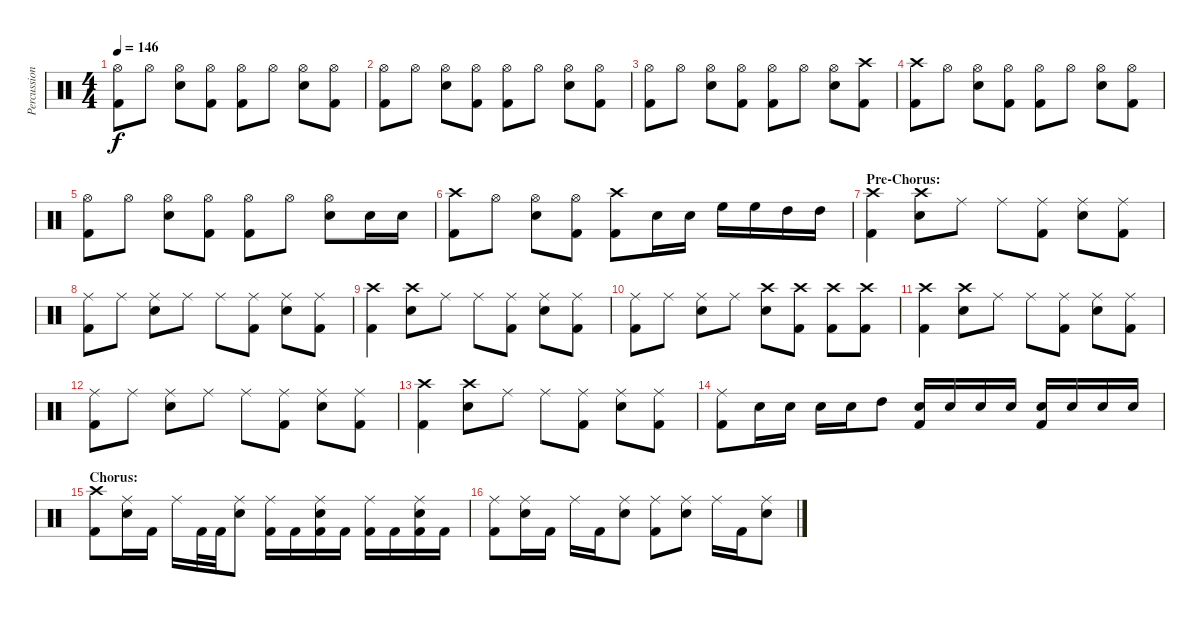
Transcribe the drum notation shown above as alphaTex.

\track ("Percussion" "Percussion") {instrument percussion}
\staff {score}
\articulation defaults
\ts (4 4)
\tempo 146
\clef neutral
\ks c
("Hi-Hat (open)" "Kick (hit) 2").8{dy f} "Hi-Hat (open)".8 ("Hi-Hat (open)" "Snare (hit) 2").8 ("Hi-Hat (open)" "Kick (hit) 2").8 ("Hi-Hat (open)" "Kick (hit) 2").8 "Hi-Hat (open)".8 ("Hi-Hat (open)" "Snare (hit) 2").8 ("Hi-Hat (open)" "Kick (hit) 2").8 |
("Hi-Hat (open)" "Kick (hit) 2").8 "Hi-Hat (open)".8 ("Hi-Hat (open)" "Snare (hit) 2").8 ("Hi-Hat (open)" "Kick (hit) 2").8 ("Hi-Hat (open)" "Kick (hit) 2").8 "Hi-Hat (open)".8 ("Hi-Hat (open)" "Snare (hit) 2").8 ("Hi-Hat (open)" "Kick (hit) 2").8 |
("Hi-Hat (open)" "Kick (hit) 2").8 "Hi-Hat (open)".8 ("Hi-Hat (open)" "Snare (hit) 2").8 ("Hi-Hat (open)" "Kick (hit) 2").8 ("Hi-Hat (open)" "Kick (hit) 2").8 "Hi-Hat (open)".8 ("Hi-Hat (open)" "Snare (hit) 2").8 ("Crash high (hit)" "Kick (hit) 2").8 |
("Crash high (hit)" "Kick (hit) 2").8 "Hi-Hat (open)".8 ("Hi-Hat (open)" "Snare (hit) 2").8 ("Hi-Hat (open)" "Kick (hit) 2").8 ("Hi-Hat (open)" "Kick (hit) 2").8 "Hi-Hat (open)".8 ("Hi-Hat (open)" "Snare (hit) 2").8 ("Hi-Hat (open)" "Kick (hit) 2").8 |
("Hi-Hat (open)" "Kick (hit) 2").8 "Hi-Hat (open)".8 ("Hi-Hat (open)" "Snare (hit) 2").8 ("Hi-Hat (open)" "Kick (hit) 2").8 ("Hi-Hat (open)" "Kick (hit) 2").8 "Hi-Hat (open)".8 ("Hi-Hat (open)" "Snare (hit) 2").8 "Snare (hit) 2".16 "Snare (hit) 2".16 |
("Crash high (hit)" "Kick (hit) 2").8 "Hi-Hat (open)".8 ("Hi-Hat (open)" "Snare (hit) 2").8 ("Hi-Hat (open)" "Kick (hit) 2").8 ("Crash high (hit)" "Kick (hit) 2").8 "Snare (hit) 2".16 "Snare (hit) 2".16 "High Floor Tom (hit)".16 "High Floor Tom (hit)".16 "High Tom (hit)".16 "High Tom (hit)".16 |
\section ("" "Pre-Chorus:")
("Crash high (hit)" "Kick (hit) 2").4 ("Crash high (hit)" "Snare (hit) 2").8 "Ride (middle)".8 "Ride (middle)".8 ("Ride (middle)" "Kick (hit) 2").8 ("Ride (middle)" "Snare (hit) 2").8 ("Ride (middle)" "Kick (hit) 2").8 |
("Ride (middle)" "Kick (hit) 2").8 "Ride (middle)".8 ("Ride (middle)" "Snare (hit) 2").8 "Ride (middle)".8 "Ride (middle)".8 ("Ride (middle)" "Kick (hit) 2").8 ("Ride (middle)" "Snare (hit) 2").8 ("Ride (middle)" "Kick (hit) 2").8 |
("Crash high (hit)" "Kick (hit) 2").4 ("Crash high (hit)" "Snare (hit) 2").8 "Ride (middle)".8 "Ride (middle)".8 ("Ride (middle)" "Kick (hit) 2").8 ("Ride (middle)" "Snare (hit) 2").8 ("Ride (middle)" "Kick (hit) 2").8 |
("Ride (middle)" "Kick (hit) 2").8 "Ride (middle)".8 ("Ride (middle)" "Snare (hit) 2").8 "Ride (middle)".8 ("Crash high (hit)" "Snare (hit) 2").8 ("Crash high (hit)" "Kick (hit) 2").8 ("Crash high (hit)" "Kick (hit) 2").8 ("Crash high (hit)" "Kick (hit) 2").8 |
("Crash high (hit)" "Kick (hit) 2").4 ("Crash high (hit)" "Snare (hit) 2").8 "Ride (middle)".8 "Ride (middle)".8 ("Ride (middle)" "Kick (hit) 2").8 ("Ride (middle)" "Snare (hit) 2").8 ("Ride (middle)" "Kick (hit) 2").8 |
("Ride (middle)" "Kick (hit) 2").8 "Ride (middle)".8 ("Ride (middle)" "Snare (hit) 2").8 "Ride (middle)".8 "Ride (middle)".8 ("Ride (middle)" "Kick (hit) 2").8 ("Ride (middle)" "Snare (hit) 2").8 ("Ride (middle)" "Kick (hit) 2").8 |
("Crash high (hit)" "Kick (hit) 2").4 ("Crash high (hit)" "Snare (hit) 2").8 "Ride (middle)".8 "Ride (middle)".8 ("Ride (middle)" "Kick (hit) 2").8 ("Ride (middle)" "Snare (hit) 2").8 ("Ride (middle)" "Kick (hit) 2").8 |
("Ride (middle)" "Kick (hit) 2").8 "Snare (hit) 2".16 "Snare (hit) 2".16 "Snare (hit) 2".16 "Snare (hit) 2".16 "High Tom (hit)".8 ("Snare (hit) 2" "Kick (hit) 2").16 "Snare (hit) 2".16 "Snare (hit) 2".16 "Snare (hit) 2".16 ("Snare (hit) 2" "Kick (hit) 2").16 "Snare (hit) 2".16 "Snare (hit) 2".16 "Snare (hit) 2".16 |
\section ("" "Chorus:")
("Crash high (hit)" "Kick (hit) 2").8 ("Ride (middle)" "Snare (hit) 2").16 "Kick (hit) 2".16 "Ride (middle)".16 "Kick (hit) 2".32 "Kick (hit) 2".32 ("Ride (middle)" "Snare (hit) 2").8 ("Ride (middle)" "Kick (hit) 2").16 "Kick (hit) 2".16 ("Ride (middle)" "Snare (hit) 2" "Kick (hit) 2").16 "Kick (hit) 2".16 ("Ride (middle)" "Kick (hit) 2").16 "Kick (hit) 2".16 ("Ride (middle)" "Snare (hit) 2" "Kick (hit) 2").16 "Kick (hit) 2".16 |
("Ride (middle)" "Kick (hit) 2").8 ("Ride (middle)" "Snare (hit) 2").16 "Kick (hit) 2".16 "Ride (middle)".16 "Kick (hit) 2".16 ("Ride (middle)" "Snare (hit) 2").8 ("Ride (middle)" "Kick (hit) 2").8 ("Ride (middle)" "Snare (hit) 2").8 "Ride (middle)".16 "Kick (hit) 2".16 ("Ride (middle)" "Snare (hit) 2").8
